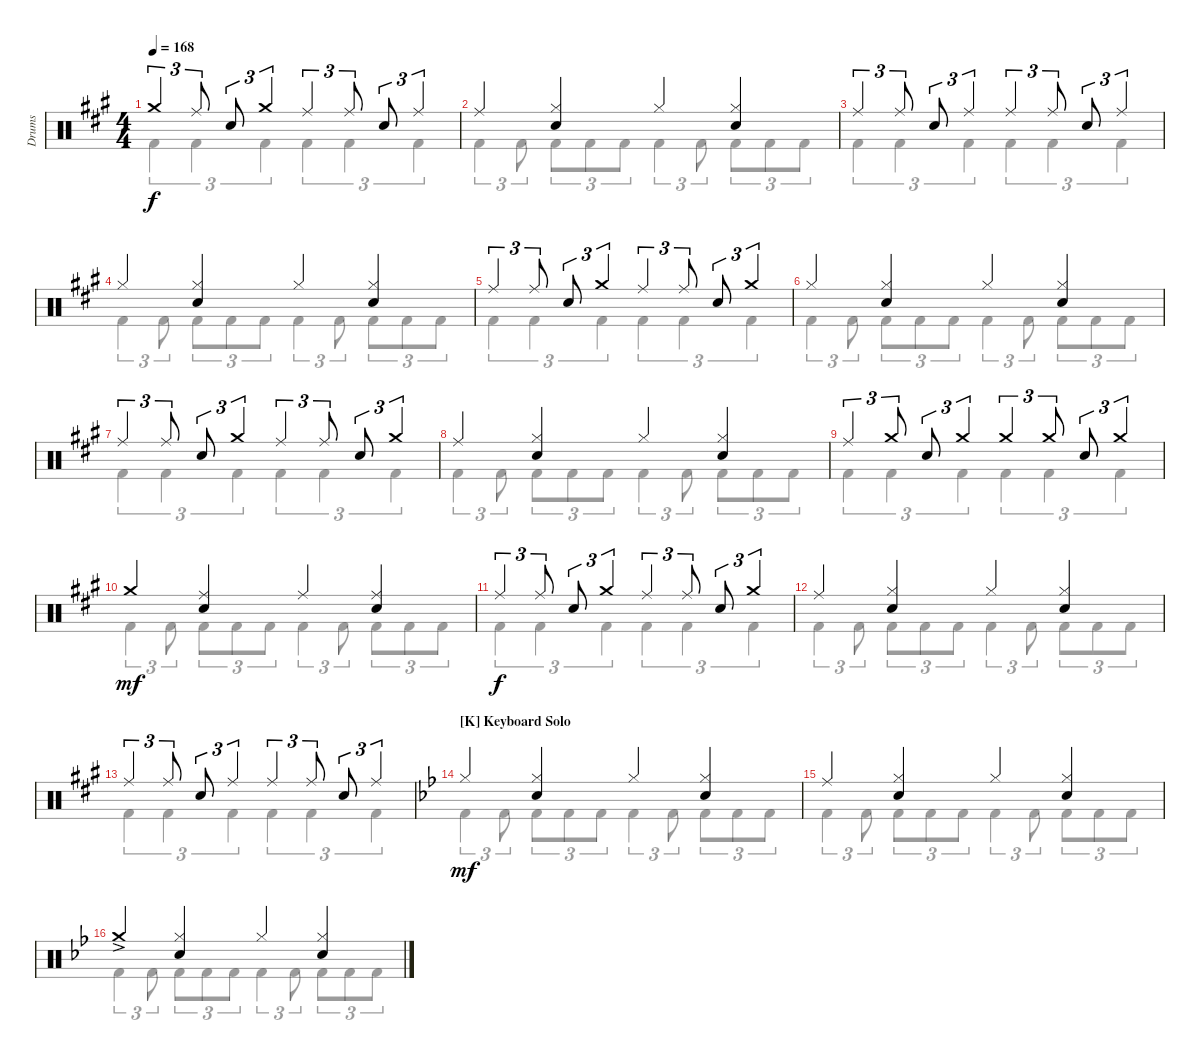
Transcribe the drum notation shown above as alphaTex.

\defaultSystemsLayout 4
\bracketExtendMode groupsimilarinstruments
\otherSystemsTrackNameOrientation horizontal
\track ("Drums" "Drums") {instrument percussion}
\staff {score}
\articulation defaults
\voice
\ts (4 4)
\tempo 168
\clef neutral
\ks a "Crash medium (hit)"{acc forcenatural}.4{tu (3 2) dy f beam Up} "Ride (middle)"{acc forcenatural}.8{tu (3 2) beam Up} "Snare (hit) 2"{acc forcenatural}.8{tu (3 2) beam Up} "Crash medium (hit)"{acc forcenatural}.4{tu (3 2) beam Up} "Ride (middle)"{acc forcenatural}.4{tu (3 2) beam Up} "Ride (middle)"{acc forcenatural}.8{tu (3 2) beam Up} "Snare (hit) 2"{acc forcenatural}.8{tu (3 2) beam Up} "Ride (middle)"{acc forcenatural}.4{tu (3 2) beam Up}
|
"Ride (middle)"{acc forcenatural}.4{beam Up} ("Hi-Hat (closed)"{acc forcenatural} "Snare (hit) 2"{acc forcenatural}).4{beam Up} "Hi-Hat (closed)"{acc forcenatural}.4{beam Up} ("Hi-Hat (closed)"{acc forcenatural} "Snare (hit) 2"{acc forcenatural}).4{beam Up} |
"Ride (middle)"{acc forcenatural}.4{tu (3 2) beam Up} "Ride (middle)"{acc forcenatural}.8{tu (3 2) beam Up} "Snare (hit) 2"{acc forcenatural}.8{tu (3 2) beam Up} "Ride (middle)"{acc forcenatural}.4{tu (3 2) beam Up} "Ride (middle)"{acc forcenatural}.4{tu (3 2) beam Up} "Ride (middle)"{acc forcenatural}.8{tu (3 2) beam Up} "Snare (hit) 2"{acc forcenatural}.8{tu (3 2) beam Up} "Ride (middle)"{acc forcenatural}.4{tu (3 2) beam Up} |
"Hi-Hat (closed)"{acc forcenatural}.4{beam Up} ("Hi-Hat (closed)"{acc forcenatural} "Snare (hit) 2"{acc forcenatural}).4{beam Up} "Hi-Hat (closed)"{acc forcenatural}.4{beam Up} ("Hi-Hat (closed)"{acc forcenatural} "Snare (hit) 2"{acc forcenatural}).4{beam Up} |
"Ride (middle)"{acc forcenatural}.4{tu (3 2) beam Up} "Ride (middle)"{acc forcenatural}.8{tu (3 2) beam Up} "Snare (hit) 2"{acc forcenatural}.8{tu (3 2) beam Up} "Crash medium (hit)"{acc forcenatural}.4{tu (3 2) beam Up} "Ride (middle)"{acc forcenatural}.4{tu (3 2) beam Up} "Ride (middle)"{acc forcenatural}.8{tu (3 2) beam Up} "Snare (hit) 2"{acc forcenatural}.8{tu (3 2) beam Up} "Crash medium (hit)"{acc forcenatural}.4{tu (3 2) beam Up} |
"Hi-Hat (closed)"{acc forcenatural}.4{beam Up} ("Hi-Hat (closed)"{acc forcenatural} "Snare (hit) 2"{acc forcenatural}).4{beam Up} "Hi-Hat (closed)"{acc forcenatural}.4{beam Up} ("Hi-Hat (closed)"{acc forcenatural} "Snare (hit) 2"{acc forcenatural}).4{beam Up} |
"Ride (middle)"{acc forcenatural}.4{tu (3 2) beam Up} "Ride (middle)"{acc forcenatural}.8{tu (3 2) beam Up} "Snare (hit) 2"{acc forcenatural}.8{tu (3 2) beam Up} "Crash medium (hit)"{acc forcenatural}.4{tu (3 2) beam Up} "Ride (middle)"{acc forcenatural}.4{tu (3 2) beam Up} "Ride (middle)"{acc forcenatural}.8{tu (3 2) beam Up} "Snare (hit) 2"{acc forcenatural}.8{tu (3 2) beam Up} "Crash medium (hit)"{acc forcenatural}.4{tu (3 2) beam Up} |
"Ride (middle)"{acc forcenatural}.4{beam Up} ("Hi-Hat (closed)"{acc forcenatural} "Snare (hit) 2"{acc forcenatural}).4{beam Up} "Hi-Hat (closed)"{acc forcenatural}.4{beam Up} ("Hi-Hat (closed)"{acc forcenatural} "Snare (hit) 2"{acc forcenatural}).4{beam Up} |
"Ride (middle)"{acc forcenatural}.4{tu (3 2) beam Up} "Crash medium (hit)"{acc forcenatural}.8{tu (3 2) beam Up} "Snare (hit) 2"{acc forcenatural}.8{tu (3 2) beam Up} "Crash medium (hit)"{acc forcenatural}.4{tu (3 2) beam Up} "Crash medium (hit)"{acc forcenatural}.4{tu (3 2) beam Up} "Crash medium (hit)"{acc forcenatural}.8{tu (3 2) beam Up} "Snare (hit) 2"{acc forcenatural}.8{tu (3 2) beam Up} "Crash medium (hit)"{acc forcenatural}.4{tu (3 2) beam Up} |
"Crash medium (hit)"{acc forcenatural}.4{dy mf beam Up} ("Ride (middle)"{acc forcenatural} "Snare (hit) 2"{acc forcenatural}).4{beam Up} "Ride (middle)"{acc forcenatural}.4{beam Up} ("Ride (middle)"{acc forcenatural} "Snare (hit) 2"{acc forcenatural}).4{beam Up} |
"Ride (middle)"{acc forcenatural}.4{tu (3 2) dy f beam Up} "Ride (middle)"{acc forcenatural}.8{tu (3 2) beam Up} "Snare (hit) 2"{acc forcenatural}.8{tu (3 2) beam Up} "Crash medium (hit)"{acc forcenatural}.4{tu (3 2) beam Up} "Ride (middle)"{acc forcenatural}.4{tu (3 2) beam Up} "Ride (middle)"{acc forcenatural}.8{tu (3 2) beam Up} "Snare (hit) 2"{acc forcenatural}.8{tu (3 2) beam Up} "Crash medium (hit)"{acc forcenatural}.4{tu (3 2) beam Up} |
"Ride (middle)"{acc forcenatural}.4{beam Up} ("Hi-Hat (closed)"{acc forcenatural} "Snare (hit) 2"{acc forcenatural}).4{beam Up} "Hi-Hat (closed)"{acc forcenatural}.4{beam Up} ("Hi-Hat (closed)"{acc forcenatural} "Snare (hit) 2"{acc forcenatural}).4{beam Up} |
"Ride (middle)"{acc forcenatural}.4{tu (3 2) beam Up} "Ride (middle)"{acc forcenatural}.8{tu (3 2) beam Up} "Snare (hit) 2"{acc forcenatural}.8{tu (3 2) beam Up} "Ride (middle)"{acc forcenatural}.4{tu (3 2) beam Up} "Ride (middle)"{acc forcenatural}.4{tu (3 2) beam Up} "Ride (middle)"{acc forcenatural}.8{tu (3 2) beam Up} "Snare (hit) 2"{acc forcenatural}.8{tu (3 2) beam Up} "Ride (middle)"{acc forcenatural}.4{tu (3 2) beam Up} |
\section ("K" "Keyboard Solo")
\ks bb "Hi-Hat (closed)"{acc forcenatural}.4{dy mf beam Up}
("Snare (hit) 2"{acc forcenatural} "Hi-Hat (closed)"{acc forcenatural}).4{beam Up} "Hi-Hat (closed)"{acc forcenatural}.4{beam Up} ("Snare (hit) 2"{acc forcenatural} "Hi-Hat (closed)"{acc forcenatural}).4{beam Up} |
"Ride (middle)"{acc forcenatural}.4{beam Up} ("Snare (hit) 2"{acc forcenatural} "Hi-Hat (closed)"{acc forcenatural}).4{beam Up} "Hi-Hat (closed)"{acc forcenatural}.4{beam Up} ("Snare (hit) 2"{acc forcenatural} "Hi-Hat (closed)"{acc forcenatural}).4{beam Up} |
"Crash medium (hit)"{ac acc forcenatural}.4{beam Up} ("Snare (hit) 2"{acc forcenatural} "Hi-Hat (closed)"{acc forcenatural}).4{beam Up} "Hi-Hat (closed)"{acc forcenatural}.4{beam Up} ("Snare (hit) 2"{acc forcenatural} "Hi-Hat (closed)"{acc forcenatural}).4{beam Up}
\voice
\clef neutral
\ottava regular
\simile none
\ks a "Kick (hit) 2"{acc forcenatural}.4{tu (3 2) dy f beam Down} "Kick (hit) 2"{acc forcenatural}.4{tu (3 2) beam Down} "Kick (hit) 2"{acc forcenatural}.4{tu (3 2) beam Down} "Kick (hit) 2"{acc forcenatural}.4{tu (3 2) beam Down} "Kick (hit) 2"{acc forcenatural}.4{tu (3 2) beam Down} "Kick (hit) 2"{acc forcenatural}.4{tu (3 2) beam Down}
|
"Kick (hit) 2"{acc forcenatural}.4{tu (3 2) beam Down} "Kick (hit) 2"{acc forcenatural}.8{tu (3 2) beam Down} "Kick (hit) 2"{acc forcenatural}.8{tu (3 2) beam Down} "Kick (hit) 2"{acc forcenatural}.8{tu (3 2) beam Down} "Kick (hit) 2"{acc forcenatural}.8{tu (3 2) beam Down} "Kick (hit) 2"{acc forcenatural}.4{tu (3 2) beam Down} "Kick (hit) 2"{acc forcenatural}.8{tu (3 2) beam Down} "Kick (hit) 2"{acc forcenatural}.8{tu (3 2) beam Down} "Kick (hit) 2"{acc forcenatural}.8{tu (3 2) beam Down} "Kick (hit) 2"{acc forcenatural}.8{tu (3 2) beam Down} |
"Kick (hit) 2"{acc forcenatural}.4{tu (3 2) beam Down} "Kick (hit) 2"{acc forcenatural}.4{tu (3 2) beam Down} "Kick (hit) 2"{acc forcenatural}.4{tu (3 2) beam Down} "Kick (hit) 2"{acc forcenatural}.4{tu (3 2) beam Down} "Kick (hit) 2"{acc forcenatural}.4{tu (3 2) beam Down} "Kick (hit) 2"{acc forcenatural}.4{tu (3 2) beam Down} |
"Kick (hit) 2"{acc forcenatural}.4{tu (3 2) beam Down} "Kick (hit) 2"{acc forcenatural}.8{tu (3 2) beam Down} "Kick (hit) 2"{acc forcenatural}.8{tu (3 2) beam Down} "Kick (hit) 2"{acc forcenatural}.8{tu (3 2) beam Down} "Kick (hit) 2"{acc forcenatural}.8{tu (3 2) beam Down} "Kick (hit) 2"{acc forcenatural}.4{tu (3 2) beam Down} "Kick (hit) 2"{acc forcenatural}.8{tu (3 2) beam Down} "Kick (hit) 2"{acc forcenatural}.8{tu (3 2) beam Down} "Kick (hit) 2"{acc forcenatural}.8{tu (3 2) beam Down} "Kick (hit) 2"{acc forcenatural}.8{tu (3 2) beam Down} |
"Kick (hit) 2"{acc forcenatural}.4{tu (3 2) beam Down} "Kick (hit) 2"{acc forcenatural}.4{tu (3 2) beam Down} "Kick (hit) 2"{acc forcenatural}.4{tu (3 2) beam Down} "Kick (hit) 2"{acc forcenatural}.4{tu (3 2) beam Down} "Kick (hit) 2"{acc forcenatural}.4{tu (3 2) beam Down} "Kick (hit) 2"{acc forcenatural}.4{tu (3 2) beam Down} |
"Kick (hit) 2"{acc forcenatural}.4{tu (3 2) beam Down} "Kick (hit) 2"{acc forcenatural}.8{tu (3 2) beam Down} "Kick (hit) 2"{acc forcenatural}.8{tu (3 2) beam Down} "Kick (hit) 2"{acc forcenatural}.8{tu (3 2) beam Down} "Kick (hit) 2"{acc forcenatural}.8{tu (3 2) beam Down} "Kick (hit) 2"{acc forcenatural}.4{tu (3 2) beam Down} "Kick (hit) 2"{acc forcenatural}.8{tu (3 2) beam Down} "Kick (hit) 2"{acc forcenatural}.8{tu (3 2) beam Down} "Kick (hit) 2"{acc forcenatural}.8{tu (3 2) beam Down} "Kick (hit) 2"{acc forcenatural}.8{tu (3 2) beam Down} |
"Kick (hit) 2"{acc forcenatural}.4{tu (3 2) beam Down} "Kick (hit) 2"{acc forcenatural}.4{tu (3 2) beam Down} "Kick (hit) 2"{acc forcenatural}.4{tu (3 2) beam Down} "Kick (hit) 2"{acc forcenatural}.4{tu (3 2) beam Down} "Kick (hit) 2"{acc forcenatural}.4{tu (3 2) beam Down} "Kick (hit) 2"{acc forcenatural}.4{tu (3 2) beam Down} |
"Kick (hit) 2"{acc forcenatural}.4{tu (3 2) beam Down} "Kick (hit) 2"{acc forcenatural}.8{tu (3 2) beam Down} "Kick (hit) 2"{acc forcenatural}.8{tu (3 2) beam Down} "Kick (hit) 2"{acc forcenatural}.8{tu (3 2) beam Down} "Kick (hit) 2"{acc forcenatural}.8{tu (3 2) beam Down} "Kick (hit) 2"{acc forcenatural}.4{tu (3 2) beam Down} "Kick (hit) 2"{acc forcenatural}.8{tu (3 2) beam Down} "Kick (hit) 2"{acc forcenatural}.8{tu (3 2) beam Down} "Kick (hit) 2"{acc forcenatural}.8{tu (3 2) beam Down} "Kick (hit) 2"{acc forcenatural}.8{tu (3 2) beam Down} |
"Kick (hit) 2"{acc forcenatural}.4{tu (3 2) beam Down} "Kick (hit) 2"{acc forcenatural}.4{tu (3 2) beam Down} "Kick (hit) 2"{acc forcenatural}.4{tu (3 2) beam Down} "Kick (hit) 2"{acc forcenatural}.4{tu (3 2) beam Down} "Kick (hit) 2"{acc forcenatural}.4{tu (3 2) beam Down} "Kick (hit) 2"{acc forcenatural}.4{tu (3 2) beam Down} |
"Kick (hit) 2"{acc forcenatural}.4{tu (3 2) beam Down} "Kick (hit) 2"{acc forcenatural}.8{tu (3 2) beam Down} "Kick (hit) 2"{acc forcenatural}.8{tu (3 2) beam Down} "Kick (hit) 2"{acc forcenatural}.8{tu (3 2) beam Down} "Kick (hit) 2"{acc forcenatural}.8{tu (3 2) beam Down} "Kick (hit) 2"{acc forcenatural}.4{tu (3 2) beam Down} "Kick (hit) 2"{acc forcenatural}.8{tu (3 2) beam Down} "Kick (hit) 2"{acc forcenatural}.8{tu (3 2) beam Down} "Kick (hit) 2"{acc forcenatural}.8{tu (3 2) beam Down} "Kick (hit) 2"{acc forcenatural}.8{tu (3 2) beam Down} |
"Kick (hit) 2"{acc forcenatural}.4{tu (3 2) beam Down} "Kick (hit) 2"{acc forcenatural}.4{tu (3 2) beam Down} "Kick (hit) 2"{acc forcenatural}.4{tu (3 2) beam Down} "Kick (hit) 2"{acc forcenatural}.4{tu (3 2) beam Down} "Kick (hit) 2"{acc forcenatural}.4{tu (3 2) beam Down} "Kick (hit) 2"{acc forcenatural}.4{tu (3 2) beam Down} |
"Kick (hit) 2"{acc forcenatural}.4{tu (3 2) beam Down} "Kick (hit) 2"{acc forcenatural}.8{tu (3 2) beam Down} "Kick (hit) 2"{acc forcenatural}.8{tu (3 2) beam Down} "Kick (hit) 2"{acc forcenatural}.8{tu (3 2) beam Down} "Kick (hit) 2"{acc forcenatural}.8{tu (3 2) beam Down} "Kick (hit) 2"{acc forcenatural}.4{tu (3 2) beam Down} "Kick (hit) 2"{acc forcenatural}.8{tu (3 2) beam Down} "Kick (hit) 2"{acc forcenatural}.8{tu (3 2) beam Down} "Kick (hit) 2"{acc forcenatural}.8{tu (3 2) beam Down} "Kick (hit) 2"{acc forcenatural}.8{tu (3 2) beam Down} |
"Kick (hit) 2"{acc forcenatural}.4{tu (3 2) beam Down} "Kick (hit) 2"{acc forcenatural}.4{tu (3 2) beam Down} "Kick (hit) 2"{acc forcenatural}.4{tu (3 2) beam Down} "Kick (hit) 2"{acc forcenatural}.4{tu (3 2) beam Down} "Kick (hit) 2"{acc forcenatural}.4{tu (3 2) beam Down} "Kick (hit) 2"{acc forcenatural}.4{tu (3 2) beam Down} |
\ks bb "Kick (hit) 2"{acc forcenatural}.4{tu (3 2) beam Down} "Kick (hit) 2"{acc forcenatural}.8{tu (3 2) beam Down} "Kick (hit) 2"{acc forcenatural}.8{tu (3 2) beam Down} "Kick (hit) 2"{acc forcenatural}.8{tu (3 2) beam Down} "Kick (hit) 2"{acc forcenatural}.8{tu (3 2) beam Down} "Kick (hit) 2"{acc forcenatural}.4{tu (3 2) beam Down} "Kick (hit) 2"{acc forcenatural}.8{tu (3 2) beam Down} "Kick (hit) 2"{acc forcenatural}.8{tu (3 2) beam Down} "Kick (hit) 2"{acc forcenatural}.8{tu (3 2) beam Down} "Kick (hit) 2"{acc forcenatural}.8{tu (3 2) beam Down}
|
"Kick (hit) 2"{acc forcenatural}.4{tu (3 2) beam Down} "Kick (hit) 2"{acc forcenatural}.8{tu (3 2) beam Down} "Kick (hit) 2"{acc forcenatural}.8{tu (3 2) beam Down} "Kick (hit) 2"{acc forcenatural}.8{tu (3 2) beam Down} "Kick (hit) 2"{acc forcenatural}.8{tu (3 2) beam Down} "Kick (hit) 2"{acc forcenatural}.4{tu (3 2) beam Down} "Kick (hit) 2"{acc forcenatural}.8{tu (3 2) beam Down} "Kick (hit) 2"{acc forcenatural}.8{tu (3 2) beam Down} "Kick (hit) 2"{acc forcenatural}.8{tu (3 2) beam Down} "Kick (hit) 2"{acc forcenatural}.8{tu (3 2) beam Down} |
"Kick (hit) 2"{acc forcenatural}.4{tu (3 2) beam Down} "Kick (hit) 2"{acc forcenatural}.8{tu (3 2) beam Down} "Kick (hit) 2"{acc forcenatural}.8{tu (3 2) beam Down} "Kick (hit) 2"{acc forcenatural}.8{tu (3 2) beam Down} "Kick (hit) 2"{acc forcenatural}.8{tu (3 2) beam Down} "Kick (hit) 2"{acc forcenatural}.4{tu (3 2) beam Down} "Kick (hit) 2"{acc forcenatural}.8{tu (3 2) beam Down} "Kick (hit) 2"{acc forcenatural}.8{tu (3 2) beam Down} "Kick (hit) 2"{acc forcenatural}.8{tu (3 2) beam Down} "Kick (hit) 2"{acc forcenatural}.8{tu (3 2) beam Down}
